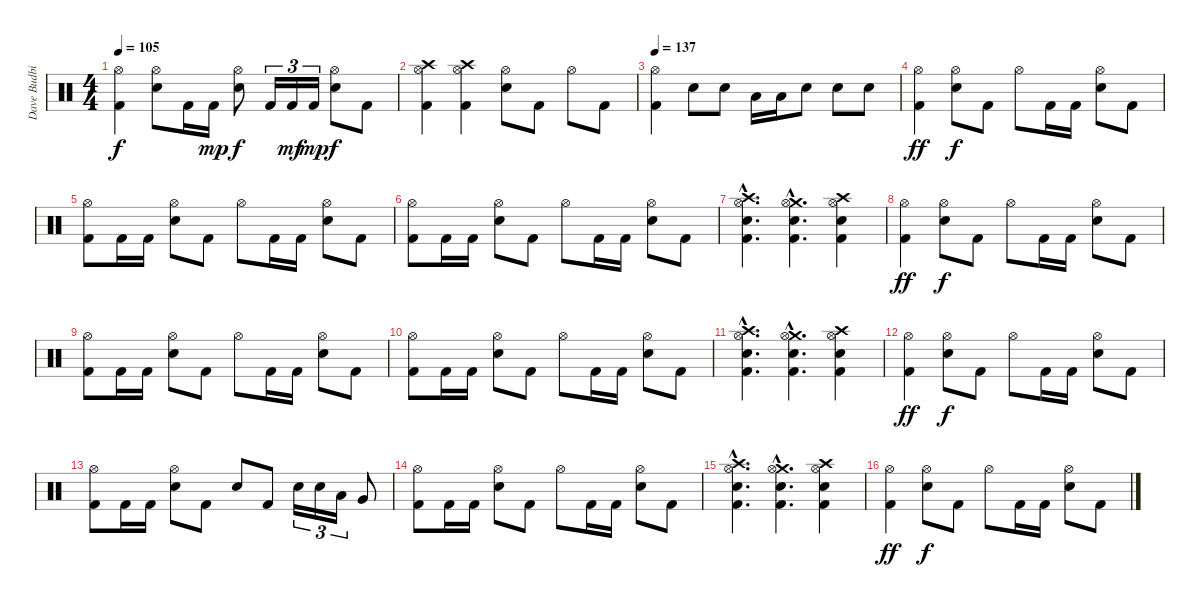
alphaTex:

\track ("Dave Budbill" "Dave Budbi") {instrument percussion}
\staff {score}
\articulation defaults
\ts (4 4)
\tempo 105
\clef neutral
\ks c
("Hi-Hat (open)" "Kick (hit) 2").4{dy f} ("Hi-Hat (open)" "Electric Snare (hit)").8 "Kick (hit) 2".16 "Kick (hit) 2".16{dy mp} ("Hi-Hat (open)" "Electric Snare (hit)").8{dy f} "Kick (hit) 2".16{tu (3 2)} "Kick (hit) 2".16{tu (3 2) dy mf} "Kick (hit) 2".16{tu (3 2) dy mp} ("Hi-Hat (open)" "Snare (hit) 2").8{dy f} "Kick (hit) 2".8 |
("Hi-Hat (open)" "Crash high (hit)" "Kick (hit) 2").4 ("Hi-Hat (open)" "Crash high (hit)" "Kick (hit) 2").4 ("Hi-Hat (open)" "Electric Snare (hit)").8 "Kick (hit) 2".8 "Hi-Hat (open)".8 "Kick (hit) 2".8 |
\tempo 137
("Hi-Hat (open)" "Kick (hit) 2").4 "Snare (hit) 2".8 "Snare (hit) 2".8 "Low Tom (hit)".16 "Low Tom (hit)".16 "Snare (hit) 2".8 "Snare (hit) 2".8 "Snare (hit) 2".8 |
("Hi-Hat (open)" "Kick (hit) 2").4{dy ff} ("Hi-Hat (open)" "Electric Snare (hit)").8{dy f} "Kick (hit) 2".8 "Hi-Hat (open)".8 "Kick (hit) 2".16 "Kick (hit) 2".16 ("Hi-Hat (open)" "Electric Snare (hit)").8 "Kick (hit) 2".8 |
("Hi-Hat (open)" "Kick (hit) 2").8 "Kick (hit) 2".16 "Kick (hit) 2".16 ("Hi-Hat (open)" "Electric Snare (hit)").8 "Kick (hit) 2".8 "Hi-Hat (open)".8 "Kick (hit) 2".16 "Kick (hit) 2".16 ("Hi-Hat (open)" "Electric Snare (hit)").8 "Kick (hit) 2".8 |
("Hi-Hat (open)" "Kick (hit) 2").8 "Kick (hit) 2".16 "Kick (hit) 2".16 ("Hi-Hat (open)" "Electric Snare (hit)").8 "Kick (hit) 2".8 "Hi-Hat (open)".8 "Kick (hit) 2".16 "Kick (hit) 2".16 ("Hi-Hat (open)" "Electric Snare (hit)").8 "Kick (hit) 2".8 |
("Snare (hit) 2"{hac} "Crash high (hit)"{hac} "Hi-Hat (open)"{hac} "Kick (hit) 2"{hac}).4{d} ("Snare (hit) 2"{hac} "Crash medium (hit)"{hac} "Hi-Hat (open)"{hac} "Kick (hit) 2"{hac}).4{d} ("Snare (hit) 2" "Crash high (hit)" "Hi-Hat (open)" "Kick (hit) 2").4 |
("Hi-Hat (open)" "Kick (hit) 2").4{dy ff} ("Hi-Hat (open)" "Electric Snare (hit)").8{dy f} "Kick (hit) 2".8 "Hi-Hat (open)".8 "Kick (hit) 2".16 "Kick (hit) 2".16 ("Hi-Hat (open)" "Electric Snare (hit)").8 "Kick (hit) 2".8 |
("Hi-Hat (open)" "Kick (hit) 2").8 "Kick (hit) 2".16 "Kick (hit) 2".16 ("Hi-Hat (open)" "Electric Snare (hit)").8 "Kick (hit) 2".8 "Hi-Hat (open)".8 "Kick (hit) 2".16 "Kick (hit) 2".16 ("Hi-Hat (open)" "Electric Snare (hit)").8 "Kick (hit) 2".8 |
("Hi-Hat (open)" "Kick (hit) 2").8 "Kick (hit) 2".16 "Kick (hit) 2".16 ("Hi-Hat (open)" "Electric Snare (hit)").8 "Kick (hit) 2".8 "Hi-Hat (open)".8 "Kick (hit) 2".16 "Kick (hit) 2".16 ("Hi-Hat (open)" "Electric Snare (hit)").8 "Kick (hit) 2".8 |
("Snare (hit) 2"{hac} "Crash high (hit)"{hac} "Hi-Hat (open)"{hac} "Kick (hit) 2"{hac}).4{d} ("Snare (hit) 2"{hac} "Crash medium (hit)"{hac} "Hi-Hat (open)"{hac} "Kick (hit) 2"{hac}).4{d} ("Snare (hit) 2" "Crash high (hit)" "Hi-Hat (open)" "Kick (hit) 2").4 |
("Hi-Hat (open)" "Kick (hit) 2").4{dy ff} ("Hi-Hat (open)" "Electric Snare (hit)").8{dy f} "Kick (hit) 2".8 "Hi-Hat (open)".8 "Kick (hit) 2".16 "Kick (hit) 2".16 ("Hi-Hat (open)" "Electric Snare (hit)").8 "Kick (hit) 2".8 |
("Hi-Hat (open)" "Kick (hit) 2").8 "Kick (hit) 2".16 "Kick (hit) 2".16 ("Hi-Hat (open)" "Electric Snare (hit)").8 "Kick (hit) 2".8 "Electric Snare (hit)".8 "Kick (hit) 2".8 "Electric Snare (hit)".16{tu (3 2)} "Electric Snare (hit)".16{tu (3 2)} "Low Tom (hit)".16{tu (3 2)} "Very Low Tom (hit)".8 |
("Hi-Hat (open)" "Kick (hit) 2").8 "Kick (hit) 2".16 "Kick (hit) 2".16 ("Hi-Hat (open)" "Electric Snare (hit)").8 "Kick (hit) 2".8 "Hi-Hat (open)".8 "Kick (hit) 2".16 "Kick (hit) 2".16 ("Hi-Hat (open)" "Electric Snare (hit)").8 "Kick (hit) 2".8 |
("Snare (hit) 2"{hac} "Crash high (hit)"{hac} "Hi-Hat (open)"{hac} "Kick (hit) 2"{hac}).4{d} ("Snare (hit) 2"{hac} "Crash medium (hit)"{hac} "Hi-Hat (open)"{hac} "Kick (hit) 2"{hac}).4{d} ("Snare (hit) 2" "Crash high (hit)" "Hi-Hat (open)" "Kick (hit) 2").4 |
("Hi-Hat (open)" "Kick (hit) 2").4{dy ff} ("Hi-Hat (open)" "Electric Snare (hit)").8{dy f} "Kick (hit) 2".8 "Hi-Hat (open)".8 "Kick (hit) 2".16 "Kick (hit) 2".16 ("Hi-Hat (open)" "Electric Snare (hit)").8 "Kick (hit) 2".8
